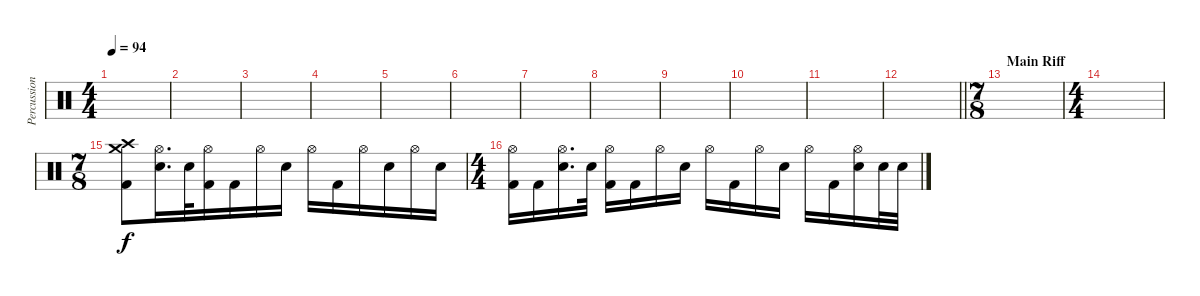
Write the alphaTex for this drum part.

\track ("Percussion" "Percussion") {instrument percussion}
\staff {score}
\articulation defaults
\ts (4 4)
\tempo 94
\clef neutral
\ks c
|
|
|
|
|
|
|
|
|
|
|
\barLineRight lightlight
|
\ts (7 8)
\section ("" "Main Riff")
|
\ts (4 4)
|
\ts (7 8)
("Crash high (hit)" "Crash medium (hit)" "Kick (hit) 2").8 ("Hi-Hat (open)" "Electric Snare (hit)").16{d} "Electric Snare (hit)".32 ("Hi-Hat (open)" "Kick (hit) 2").16 "Kick (hit) 2".16 "Hi-Hat (open)".16 "Electric Snare (hit)".16 "Hi-Hat (open)".16 "Kick (hit) 2".16 "Hi-Hat (open)".16 "Electric Snare (hit)".16 "Hi-Hat (open)".16 "Electric Snare (hit)".16 |
\ts (4 4)
("Hi-Hat (open)" "Kick (hit) 2").16 "Kick (hit) 2".16 ("Hi-Hat (open)" "Electric Snare (hit)").16{d} "Electric Snare (hit)".32 ("Hi-Hat (open)" "Kick (hit) 2").16 "Kick (hit) 2".16 "Hi-Hat (open)".16 "Electric Snare (hit)".16 "Hi-Hat (open)".16 "Kick (hit) 2".16 "Hi-Hat (open)".16 "Electric Snare (hit)".16 "Hi-Hat (open)".16 "Kick (hit) 2".16 ("Hi-Hat (open)" "Electric Snare (hit)").16 "Electric Snare (hit)".32 "Electric Snare (hit)".32
